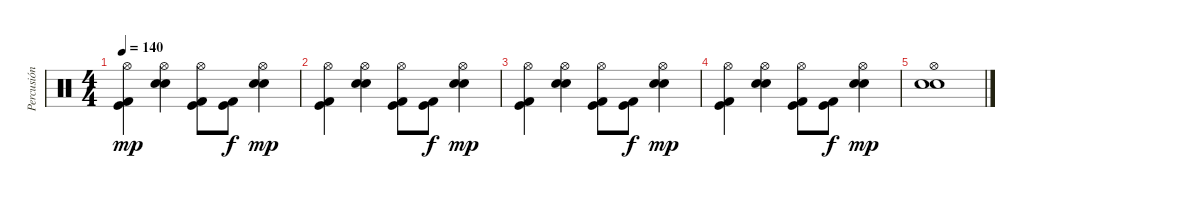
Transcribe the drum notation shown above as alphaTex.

\track ("Percusión" "Percusión") {instrument percussion}
\staff {score}
\articulation defaults
\ts (4 4)
\tempo 140
\clef neutral
\ks c
("Kick (hit)" "Kick (hit) 2" "Hi-Hat (open)").4{dy mp} ("Electric Snare (hit)" "Snare (hit) 2" "Hi-Hat (open)").4 ("Kick (hit)" "Kick (hit) 2" "Hi-Hat (open)").8 ("Kick (hit)" "Kick (hit) 2").8{dy f} ("Snare (hit) 2" "Electric Snare (hit)" "Hi-Hat (open)").4{dy mp} |
("Kick (hit)" "Kick (hit) 2" "Hi-Hat (open)").4 ("Electric Snare (hit)" "Snare (hit) 2" "Hi-Hat (open)").4 ("Kick (hit)" "Kick (hit) 2" "Hi-Hat (open)").8 ("Kick (hit)" "Kick (hit) 2").8{dy f} ("Snare (hit) 2" "Electric Snare (hit)" "Hi-Hat (open)").4{dy mp} |
("Kick (hit)" "Kick (hit) 2" "Hi-Hat (open)").4 ("Electric Snare (hit)" "Snare (hit) 2" "Hi-Hat (open)").4 ("Kick (hit)" "Kick (hit) 2" "Hi-Hat (open)").8 ("Kick (hit)" "Kick (hit) 2").8{dy f} ("Snare (hit) 2" "Electric Snare (hit)" "Hi-Hat (open)").4{dy mp} |
("Kick (hit)" "Kick (hit) 2" "Hi-Hat (open)").4 ("Electric Snare (hit)" "Snare (hit) 2" "Hi-Hat (open)").4 ("Kick (hit)" "Kick (hit) 2" "Hi-Hat (open)").8 ("Kick (hit)" "Kick (hit) 2").8{dy f} ("Snare (hit) 2" "Electric Snare (hit)" "Hi-Hat (open)").4{dy mp} |
("Snare (hit) 2" "Hi-Hat (open)" "Electric Snare (hit)").1
